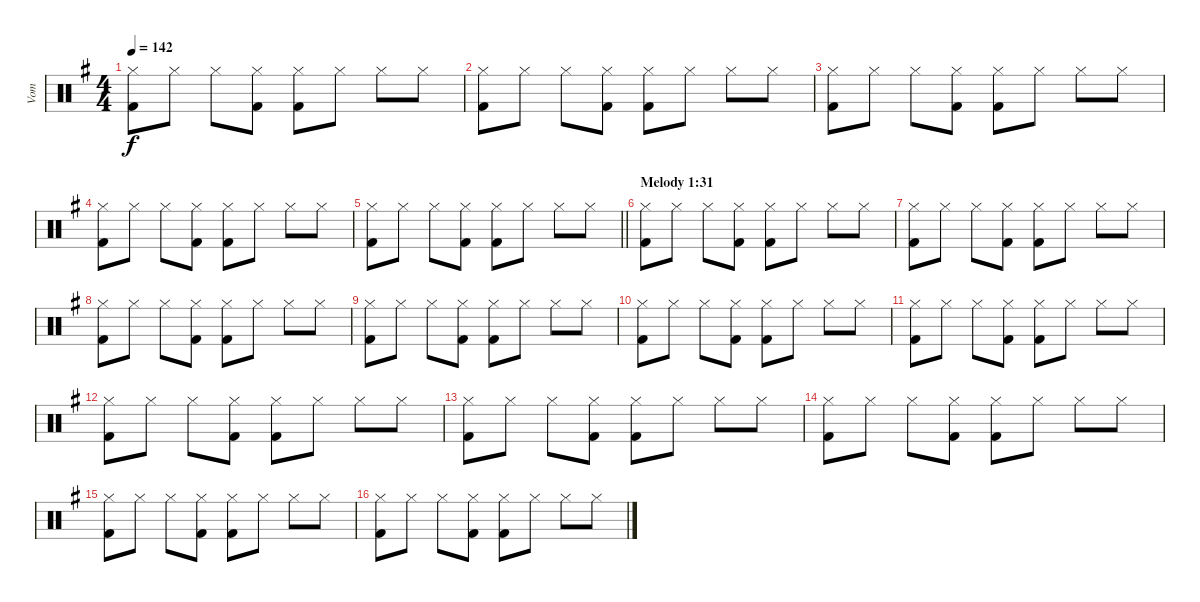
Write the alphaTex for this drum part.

\track ("Vom" "Vom") {instrument percussion}
\staff {score}
\articulation defaults
\ts (4 4)
\tempo 142
\clef neutral
\ks g
("Hi-Hat (closed)" "Kick (hit) 2").8{dy f} "Hi-Hat (closed)".8 "Hi-Hat (closed)".8 ("Hi-Hat (closed)" "Kick (hit) 2").8 ("Hi-Hat (closed)" "Kick (hit) 2").8 "Hi-Hat (closed)".8 "Hi-Hat (closed)".8 "Hi-Hat (closed)".8 |
("Hi-Hat (closed)" "Kick (hit) 2").8 "Hi-Hat (closed)".8 "Hi-Hat (closed)".8 ("Hi-Hat (closed)" "Kick (hit) 2").8 ("Hi-Hat (closed)" "Kick (hit) 2").8 "Hi-Hat (closed)".8 "Hi-Hat (closed)".8 "Hi-Hat (closed)".8 |
("Hi-Hat (closed)" "Kick (hit) 2").8 "Hi-Hat (closed)".8 "Hi-Hat (closed)".8 ("Hi-Hat (closed)" "Kick (hit) 2").8 ("Hi-Hat (closed)" "Kick (hit) 2").8 "Hi-Hat (closed)".8 "Hi-Hat (closed)".8 "Hi-Hat (closed)".8 |
("Hi-Hat (closed)" "Kick (hit) 2").8 "Hi-Hat (closed)".8 "Hi-Hat (closed)".8 ("Hi-Hat (closed)" "Kick (hit) 2").8 ("Hi-Hat (closed)" "Kick (hit) 2").8 "Hi-Hat (closed)".8 "Hi-Hat (closed)".8 "Hi-Hat (closed)".8 |
\barLineRight lightlight
("Hi-Hat (closed)" "Kick (hit) 2").8 "Hi-Hat (closed)".8 "Hi-Hat (closed)".8 ("Hi-Hat (closed)" "Kick (hit) 2").8 ("Hi-Hat (closed)" "Kick (hit) 2").8 "Hi-Hat (closed)".8 "Hi-Hat (closed)".8 "Hi-Hat (closed)".8 |
\section ("" "Melody 1:31")
("Hi-Hat (closed)" "Kick (hit) 2").8 "Hi-Hat (closed)".8 "Hi-Hat (closed)".8 ("Hi-Hat (closed)" "Kick (hit) 2").8 ("Hi-Hat (closed)" "Kick (hit) 2").8 "Hi-Hat (closed)".8 "Hi-Hat (closed)".8 "Hi-Hat (closed)".8 |
("Hi-Hat (closed)" "Kick (hit) 2").8 "Hi-Hat (closed)".8 "Hi-Hat (closed)".8 ("Hi-Hat (closed)" "Kick (hit) 2").8 ("Hi-Hat (closed)" "Kick (hit) 2").8 "Hi-Hat (closed)".8 "Hi-Hat (closed)".8 "Hi-Hat (closed)".8 |
("Hi-Hat (closed)" "Kick (hit) 2").8 "Hi-Hat (closed)".8 "Hi-Hat (closed)".8 ("Hi-Hat (closed)" "Kick (hit) 2").8 ("Hi-Hat (closed)" "Kick (hit) 2").8 "Hi-Hat (closed)".8 "Hi-Hat (closed)".8 "Hi-Hat (closed)".8 |
("Hi-Hat (closed)" "Kick (hit) 2").8 "Hi-Hat (closed)".8 "Hi-Hat (closed)".8 ("Hi-Hat (closed)" "Kick (hit) 2").8 ("Hi-Hat (closed)" "Kick (hit) 2").8 "Hi-Hat (closed)".8 "Hi-Hat (closed)".8 "Hi-Hat (closed)".8 |
("Hi-Hat (closed)" "Kick (hit) 2").8 "Hi-Hat (closed)".8 "Hi-Hat (closed)".8 ("Hi-Hat (closed)" "Kick (hit) 2").8 ("Hi-Hat (closed)" "Kick (hit) 2").8 "Hi-Hat (closed)".8 "Hi-Hat (closed)".8 "Hi-Hat (closed)".8 |
("Hi-Hat (closed)" "Kick (hit) 2").8 "Hi-Hat (closed)".8 "Hi-Hat (closed)".8 ("Hi-Hat (closed)" "Kick (hit) 2").8 ("Hi-Hat (closed)" "Kick (hit) 2").8 "Hi-Hat (closed)".8 "Hi-Hat (closed)".8 "Hi-Hat (closed)".8 |
("Hi-Hat (closed)" "Kick (hit) 2").8 "Hi-Hat (closed)".8 "Hi-Hat (closed)".8 ("Hi-Hat (closed)" "Kick (hit) 2").8 ("Hi-Hat (closed)" "Kick (hit) 2").8 "Hi-Hat (closed)".8 "Hi-Hat (closed)".8 "Hi-Hat (closed)".8 |
("Hi-Hat (closed)" "Kick (hit) 2").8 "Hi-Hat (closed)".8 "Hi-Hat (closed)".8 ("Hi-Hat (closed)" "Kick (hit) 2").8 ("Hi-Hat (closed)" "Kick (hit) 2").8 "Hi-Hat (closed)".8 "Hi-Hat (closed)".8 "Hi-Hat (closed)".8 |
("Hi-Hat (closed)" "Kick (hit) 2").8 "Hi-Hat (closed)".8 "Hi-Hat (closed)".8 ("Hi-Hat (closed)" "Kick (hit) 2").8 ("Hi-Hat (closed)" "Kick (hit) 2").8 "Hi-Hat (closed)".8 "Hi-Hat (closed)".8 "Hi-Hat (closed)".8 |
("Hi-Hat (closed)" "Kick (hit) 2").8 "Hi-Hat (closed)".8 "Hi-Hat (closed)".8 ("Hi-Hat (closed)" "Kick (hit) 2").8 ("Hi-Hat (closed)" "Kick (hit) 2").8 "Hi-Hat (closed)".8 "Hi-Hat (closed)".8 "Hi-Hat (closed)".8 |
("Hi-Hat (closed)" "Kick (hit) 2").8 "Hi-Hat (closed)".8 "Hi-Hat (closed)".8 ("Hi-Hat (closed)" "Kick (hit) 2").8 ("Hi-Hat (closed)" "Kick (hit) 2").8 "Hi-Hat (closed)".8 "Hi-Hat (closed)".8 "Hi-Hat (closed)".8
